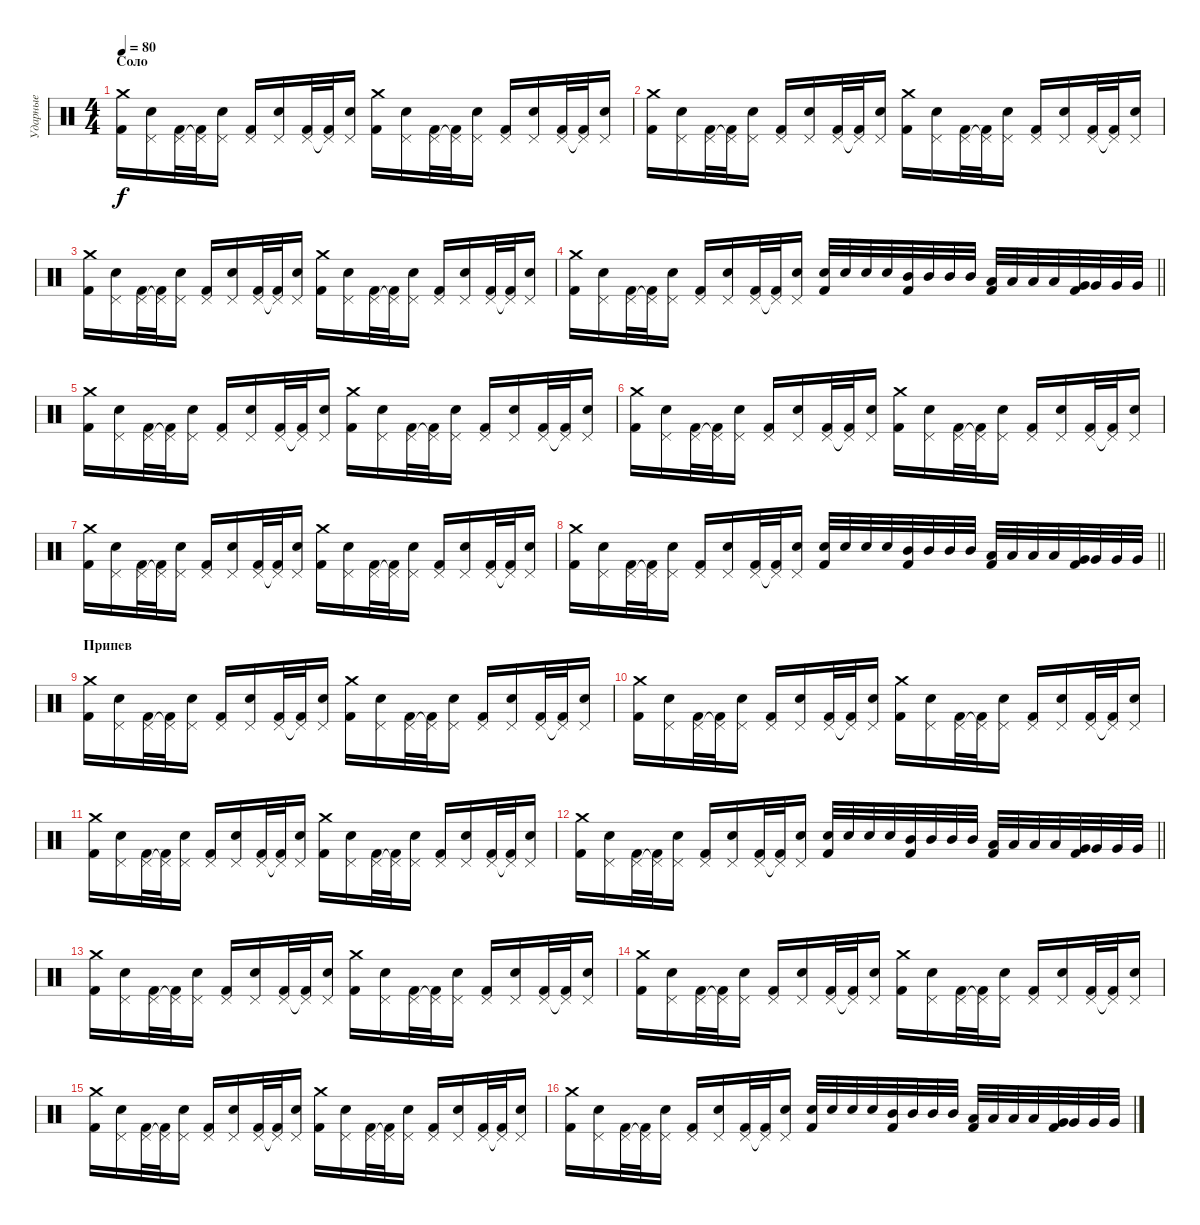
\track ("Ударные" "Ударные") {instrument percussion}
\staff {score}
\articulation defaults
\ts (4 4)
\section ("" "Соло")
\tempo 80
\clef neutral
\ks c
("Crash medium (hit)" "Kick (hit) 2").16{dy f} ("Pedal Hi-Hat (hit)" "Snare (hit) 2").16 ("Pedal Hi-Hat (hit)" "Kick (hit) 2").32 ("Pedal Hi-Hat (hit)"{t} "Kick (hit) 2").32 ("Pedal Hi-Hat (hit)" "Snare (hit) 2").16 ("Pedal Hi-Hat (hit)" "Kick (hit) 2").16 ("Pedal Hi-Hat (hit)" "Snare (hit) 2").16 ("Pedal Hi-Hat (hit)" "Kick (hit) 2").32 ("Pedal Hi-Hat (hit)"{t} "Kick (hit) 2").32 ("Pedal Hi-Hat (hit)" "Snare (hit) 2").16 ("Crash medium (hit)" "Kick (hit) 2").16 ("Pedal Hi-Hat (hit)" "Snare (hit) 2").16 ("Pedal Hi-Hat (hit)" "Kick (hit) 2").32 ("Pedal Hi-Hat (hit)"{t} "Kick (hit) 2").32 ("Pedal Hi-Hat (hit)" "Snare (hit) 2").16 ("Pedal Hi-Hat (hit)" "Kick (hit) 2").16 ("Pedal Hi-Hat (hit)" "Snare (hit) 2").16 ("Pedal Hi-Hat (hit)" "Kick (hit) 2").32 ("Pedal Hi-Hat (hit)"{t} "Kick (hit) 2").32 ("Pedal Hi-Hat (hit)" "Snare (hit) 2").16 |
("Crash medium (hit)" "Kick (hit) 2").16 ("Pedal Hi-Hat (hit)" "Snare (hit) 2").16 ("Pedal Hi-Hat (hit)" "Kick (hit) 2").32 ("Pedal Hi-Hat (hit)"{t} "Kick (hit) 2").32 ("Pedal Hi-Hat (hit)" "Snare (hit) 2").16 ("Pedal Hi-Hat (hit)" "Kick (hit) 2").16 ("Pedal Hi-Hat (hit)" "Snare (hit) 2").16 ("Pedal Hi-Hat (hit)" "Kick (hit) 2").32 ("Pedal Hi-Hat (hit)"{t} "Kick (hit) 2").32 ("Pedal Hi-Hat (hit)" "Snare (hit) 2").16 ("Crash medium (hit)" "Kick (hit) 2").16 ("Pedal Hi-Hat (hit)" "Snare (hit) 2").16 ("Pedal Hi-Hat (hit)" "Kick (hit) 2").32 ("Pedal Hi-Hat (hit)"{t} "Kick (hit) 2").32 ("Pedal Hi-Hat (hit)" "Snare (hit) 2").16 ("Pedal Hi-Hat (hit)" "Kick (hit) 2").16 ("Pedal Hi-Hat (hit)" "Snare (hit) 2").16 ("Pedal Hi-Hat (hit)" "Kick (hit) 2").32 ("Pedal Hi-Hat (hit)"{t} "Kick (hit) 2").32 ("Pedal Hi-Hat (hit)" "Snare (hit) 2").16 |
("Crash medium (hit)" "Kick (hit) 2").16 ("Pedal Hi-Hat (hit)" "Snare (hit) 2").16 ("Pedal Hi-Hat (hit)" "Kick (hit) 2").32 ("Pedal Hi-Hat (hit)"{t} "Kick (hit) 2").32 ("Pedal Hi-Hat (hit)" "Snare (hit) 2").16 ("Pedal Hi-Hat (hit)" "Kick (hit) 2").16 ("Pedal Hi-Hat (hit)" "Snare (hit) 2").16 ("Pedal Hi-Hat (hit)" "Kick (hit) 2").32 ("Pedal Hi-Hat (hit)"{t} "Kick (hit) 2").32 ("Pedal Hi-Hat (hit)" "Snare (hit) 2").16 ("Crash medium (hit)" "Kick (hit) 2").16 ("Pedal Hi-Hat (hit)" "Snare (hit) 2").16 ("Pedal Hi-Hat (hit)" "Kick (hit) 2").32 ("Pedal Hi-Hat (hit)"{t} "Kick (hit) 2").32 ("Pedal Hi-Hat (hit)" "Snare (hit) 2").16 ("Pedal Hi-Hat (hit)" "Kick (hit) 2").16 ("Pedal Hi-Hat (hit)" "Snare (hit) 2").16 ("Pedal Hi-Hat (hit)" "Kick (hit) 2").32 ("Pedal Hi-Hat (hit)"{t} "Kick (hit) 2").32 ("Pedal Hi-Hat (hit)" "Snare (hit) 2").16 |
\barLineRight lightlight
("Crash medium (hit)" "Kick (hit) 2").16 ("Pedal Hi-Hat (hit)" "Snare (hit) 2").16 ("Pedal Hi-Hat (hit)" "Kick (hit) 2").32 ("Pedal Hi-Hat (hit)"{t} "Kick (hit) 2").32 ("Pedal Hi-Hat (hit)" "Snare (hit) 2").16 ("Pedal Hi-Hat (hit)" "Kick (hit) 2").16 ("Pedal Hi-Hat (hit)" "Snare (hit) 2").16 ("Pedal Hi-Hat (hit)" "Kick (hit) 2").32 ("Pedal Hi-Hat (hit)"{t} "Kick (hit) 2").32 ("Pedal Hi-Hat (hit)" "Snare (hit) 2").16 ("Snare (hit) 2" "Kick (hit) 2").32 "Snare (hit) 2".32 "Snare (hit) 2".32 "Snare (hit) 2".32 ("Mid Tom (hit)" "Kick (hit) 2").32 "Mid Tom (hit)".32 "Mid Tom (hit)".32 "Mid Tom (hit)".32 ("Low Tom (hit)" "Kick (hit) 2").32 "Low Tom (hit)".32 "Low Tom (hit)".32 "Low Tom (hit)".32 ("Very Low Tom (hit)" "Kick (hit) 2").32 "Very Low Tom (hit)".32 "Very Low Tom (hit)".32 "Very Low Tom (hit)".32 |
("Crash medium (hit)" "Kick (hit) 2").16 ("Pedal Hi-Hat (hit)" "Snare (hit) 2").16 ("Pedal Hi-Hat (hit)" "Kick (hit) 2").32 ("Pedal Hi-Hat (hit)"{t} "Kick (hit) 2").32 ("Pedal Hi-Hat (hit)" "Snare (hit) 2").16 ("Pedal Hi-Hat (hit)" "Kick (hit) 2").16 ("Pedal Hi-Hat (hit)" "Snare (hit) 2").16 ("Pedal Hi-Hat (hit)" "Kick (hit) 2").32 ("Pedal Hi-Hat (hit)"{t} "Kick (hit) 2").32 ("Pedal Hi-Hat (hit)" "Snare (hit) 2").16 ("Crash medium (hit)" "Kick (hit) 2").16 ("Pedal Hi-Hat (hit)" "Snare (hit) 2").16 ("Pedal Hi-Hat (hit)" "Kick (hit) 2").32 ("Pedal Hi-Hat (hit)"{t} "Kick (hit) 2").32 ("Pedal Hi-Hat (hit)" "Snare (hit) 2").16 ("Pedal Hi-Hat (hit)" "Kick (hit) 2").16 ("Pedal Hi-Hat (hit)" "Snare (hit) 2").16 ("Pedal Hi-Hat (hit)" "Kick (hit) 2").32 ("Pedal Hi-Hat (hit)"{t} "Kick (hit) 2").32 ("Pedal Hi-Hat (hit)" "Snare (hit) 2").16 |
("Crash medium (hit)" "Kick (hit) 2").16 ("Pedal Hi-Hat (hit)" "Snare (hit) 2").16 ("Pedal Hi-Hat (hit)" "Kick (hit) 2").32 ("Pedal Hi-Hat (hit)"{t} "Kick (hit) 2").32 ("Pedal Hi-Hat (hit)" "Snare (hit) 2").16 ("Pedal Hi-Hat (hit)" "Kick (hit) 2").16 ("Pedal Hi-Hat (hit)" "Snare (hit) 2").16 ("Pedal Hi-Hat (hit)" "Kick (hit) 2").32 ("Pedal Hi-Hat (hit)"{t} "Kick (hit) 2").32 ("Pedal Hi-Hat (hit)" "Snare (hit) 2").16 ("Crash medium (hit)" "Kick (hit) 2").16 ("Pedal Hi-Hat (hit)" "Snare (hit) 2").16 ("Pedal Hi-Hat (hit)" "Kick (hit) 2").32 ("Pedal Hi-Hat (hit)"{t} "Kick (hit) 2").32 ("Pedal Hi-Hat (hit)" "Snare (hit) 2").16 ("Pedal Hi-Hat (hit)" "Kick (hit) 2").16 ("Pedal Hi-Hat (hit)" "Snare (hit) 2").16 ("Pedal Hi-Hat (hit)" "Kick (hit) 2").32 ("Pedal Hi-Hat (hit)"{t} "Kick (hit) 2").32 ("Pedal Hi-Hat (hit)" "Snare (hit) 2").16 |
("Crash medium (hit)" "Kick (hit) 2").16 ("Pedal Hi-Hat (hit)" "Snare (hit) 2").16 ("Pedal Hi-Hat (hit)" "Kick (hit) 2").32 ("Pedal Hi-Hat (hit)"{t} "Kick (hit) 2").32 ("Pedal Hi-Hat (hit)" "Snare (hit) 2").16 ("Pedal Hi-Hat (hit)" "Kick (hit) 2").16 ("Pedal Hi-Hat (hit)" "Snare (hit) 2").16 ("Pedal Hi-Hat (hit)" "Kick (hit) 2").32 ("Pedal Hi-Hat (hit)"{t} "Kick (hit) 2").32 ("Pedal Hi-Hat (hit)" "Snare (hit) 2").16 ("Crash medium (hit)" "Kick (hit) 2").16 ("Pedal Hi-Hat (hit)" "Snare (hit) 2").16 ("Pedal Hi-Hat (hit)" "Kick (hit) 2").32 ("Pedal Hi-Hat (hit)"{t} "Kick (hit) 2").32 ("Pedal Hi-Hat (hit)" "Snare (hit) 2").16 ("Pedal Hi-Hat (hit)" "Kick (hit) 2").16 ("Pedal Hi-Hat (hit)" "Snare (hit) 2").16 ("Pedal Hi-Hat (hit)" "Kick (hit) 2").32 ("Pedal Hi-Hat (hit)"{t} "Kick (hit) 2").32 ("Pedal Hi-Hat (hit)" "Snare (hit) 2").16 |
\barLineRight lightlight
("Crash medium (hit)" "Kick (hit) 2").16 ("Pedal Hi-Hat (hit)" "Snare (hit) 2").16 ("Pedal Hi-Hat (hit)" "Kick (hit) 2").32 ("Pedal Hi-Hat (hit)"{t} "Kick (hit) 2").32 ("Pedal Hi-Hat (hit)" "Snare (hit) 2").16 ("Pedal Hi-Hat (hit)" "Kick (hit) 2").16 ("Pedal Hi-Hat (hit)" "Snare (hit) 2").16 ("Pedal Hi-Hat (hit)" "Kick (hit) 2").32 ("Pedal Hi-Hat (hit)"{t} "Kick (hit) 2").32 ("Pedal Hi-Hat (hit)" "Snare (hit) 2").16 ("Snare (hit) 2" "Kick (hit) 2").32 "Snare (hit) 2".32 "Snare (hit) 2".32 "Snare (hit) 2".32 ("Mid Tom (hit)" "Kick (hit) 2").32 "Mid Tom (hit)".32 "Mid Tom (hit)".32 "Mid Tom (hit)".32 ("Low Tom (hit)" "Kick (hit) 2").32 "Low Tom (hit)".32 "Low Tom (hit)".32 "Low Tom (hit)".32 ("Very Low Tom (hit)" "Kick (hit) 2").32 "Very Low Tom (hit)".32 "Very Low Tom (hit)".32 "Very Low Tom (hit)".32 |
\section ("" "Припев")
("Crash medium (hit)" "Kick (hit) 2").16 ("Pedal Hi-Hat (hit)" "Snare (hit) 2").16 ("Pedal Hi-Hat (hit)" "Kick (hit) 2").32 ("Pedal Hi-Hat (hit)"{t} "Kick (hit) 2").32 ("Pedal Hi-Hat (hit)" "Snare (hit) 2").16 ("Pedal Hi-Hat (hit)" "Kick (hit) 2").16 ("Pedal Hi-Hat (hit)" "Snare (hit) 2").16 ("Pedal Hi-Hat (hit)" "Kick (hit) 2").32 ("Pedal Hi-Hat (hit)"{t} "Kick (hit) 2").32 ("Pedal Hi-Hat (hit)" "Snare (hit) 2").16 ("Crash medium (hit)" "Kick (hit) 2").16 ("Pedal Hi-Hat (hit)" "Snare (hit) 2").16 ("Pedal Hi-Hat (hit)" "Kick (hit) 2").32 ("Pedal Hi-Hat (hit)"{t} "Kick (hit) 2").32 ("Pedal Hi-Hat (hit)" "Snare (hit) 2").16 ("Pedal Hi-Hat (hit)" "Kick (hit) 2").16 ("Pedal Hi-Hat (hit)" "Snare (hit) 2").16 ("Pedal Hi-Hat (hit)" "Kick (hit) 2").32 ("Pedal Hi-Hat (hit)"{t} "Kick (hit) 2").32 ("Pedal Hi-Hat (hit)" "Snare (hit) 2").16 |
("Crash medium (hit)" "Kick (hit) 2").16 ("Pedal Hi-Hat (hit)" "Snare (hit) 2").16 ("Pedal Hi-Hat (hit)" "Kick (hit) 2").32 ("Pedal Hi-Hat (hit)"{t} "Kick (hit) 2").32 ("Pedal Hi-Hat (hit)" "Snare (hit) 2").16 ("Pedal Hi-Hat (hit)" "Kick (hit) 2").16 ("Pedal Hi-Hat (hit)" "Snare (hit) 2").16 ("Pedal Hi-Hat (hit)" "Kick (hit) 2").32 ("Pedal Hi-Hat (hit)"{t} "Kick (hit) 2").32 ("Pedal Hi-Hat (hit)" "Snare (hit) 2").16 ("Crash medium (hit)" "Kick (hit) 2").16 ("Pedal Hi-Hat (hit)" "Snare (hit) 2").16 ("Pedal Hi-Hat (hit)" "Kick (hit) 2").32 ("Pedal Hi-Hat (hit)"{t} "Kick (hit) 2").32 ("Pedal Hi-Hat (hit)" "Snare (hit) 2").16 ("Pedal Hi-Hat (hit)" "Kick (hit) 2").16 ("Pedal Hi-Hat (hit)" "Snare (hit) 2").16 ("Pedal Hi-Hat (hit)" "Kick (hit) 2").32 ("Pedal Hi-Hat (hit)"{t} "Kick (hit) 2").32 ("Pedal Hi-Hat (hit)" "Snare (hit) 2").16 |
("Crash medium (hit)" "Kick (hit) 2").16 ("Pedal Hi-Hat (hit)" "Snare (hit) 2").16 ("Pedal Hi-Hat (hit)" "Kick (hit) 2").32 ("Pedal Hi-Hat (hit)"{t} "Kick (hit) 2").32 ("Pedal Hi-Hat (hit)" "Snare (hit) 2").16 ("Pedal Hi-Hat (hit)" "Kick (hit) 2").16 ("Pedal Hi-Hat (hit)" "Snare (hit) 2").16 ("Pedal Hi-Hat (hit)" "Kick (hit) 2").32 ("Pedal Hi-Hat (hit)"{t} "Kick (hit) 2").32 ("Pedal Hi-Hat (hit)" "Snare (hit) 2").16 ("Crash medium (hit)" "Kick (hit) 2").16 ("Pedal Hi-Hat (hit)" "Snare (hit) 2").16 ("Pedal Hi-Hat (hit)" "Kick (hit) 2").32 ("Pedal Hi-Hat (hit)"{t} "Kick (hit) 2").32 ("Pedal Hi-Hat (hit)" "Snare (hit) 2").16 ("Pedal Hi-Hat (hit)" "Kick (hit) 2").16 ("Pedal Hi-Hat (hit)" "Snare (hit) 2").16 ("Pedal Hi-Hat (hit)" "Kick (hit) 2").32 ("Pedal Hi-Hat (hit)"{t} "Kick (hit) 2").32 ("Pedal Hi-Hat (hit)" "Snare (hit) 2").16 |
\barLineRight lightlight
("Crash medium (hit)" "Kick (hit) 2").16 ("Pedal Hi-Hat (hit)" "Snare (hit) 2").16 ("Pedal Hi-Hat (hit)" "Kick (hit) 2").32 ("Pedal Hi-Hat (hit)"{t} "Kick (hit) 2").32 ("Pedal Hi-Hat (hit)" "Snare (hit) 2").16 ("Pedal Hi-Hat (hit)" "Kick (hit) 2").16 ("Pedal Hi-Hat (hit)" "Snare (hit) 2").16 ("Pedal Hi-Hat (hit)" "Kick (hit) 2").32 ("Pedal Hi-Hat (hit)"{t} "Kick (hit) 2").32 ("Pedal Hi-Hat (hit)" "Snare (hit) 2").16 ("Snare (hit) 2" "Kick (hit) 2").32 "Snare (hit) 2".32 "Snare (hit) 2".32 "Snare (hit) 2".32 ("Mid Tom (hit)" "Kick (hit) 2").32 "Mid Tom (hit)".32 "Mid Tom (hit)".32 "Mid Tom (hit)".32 ("Low Tom (hit)" "Kick (hit) 2").32 "Low Tom (hit)".32 "Low Tom (hit)".32 "Low Tom (hit)".32 ("Very Low Tom (hit)" "Kick (hit) 2").32 "Very Low Tom (hit)".32 "Very Low Tom (hit)".32 "Very Low Tom (hit)".32 |
("Crash medium (hit)" "Kick (hit) 2").16 ("Pedal Hi-Hat (hit)" "Snare (hit) 2").16 ("Pedal Hi-Hat (hit)" "Kick (hit) 2").32 ("Pedal Hi-Hat (hit)"{t} "Kick (hit) 2").32 ("Pedal Hi-Hat (hit)" "Snare (hit) 2").16 ("Pedal Hi-Hat (hit)" "Kick (hit) 2").16 ("Pedal Hi-Hat (hit)" "Snare (hit) 2").16 ("Pedal Hi-Hat (hit)" "Kick (hit) 2").32 ("Pedal Hi-Hat (hit)"{t} "Kick (hit) 2").32 ("Pedal Hi-Hat (hit)" "Snare (hit) 2").16 ("Crash medium (hit)" "Kick (hit) 2").16 ("Pedal Hi-Hat (hit)" "Snare (hit) 2").16 ("Pedal Hi-Hat (hit)" "Kick (hit) 2").32 ("Pedal Hi-Hat (hit)"{t} "Kick (hit) 2").32 ("Pedal Hi-Hat (hit)" "Snare (hit) 2").16 ("Pedal Hi-Hat (hit)" "Kick (hit) 2").16 ("Pedal Hi-Hat (hit)" "Snare (hit) 2").16 ("Pedal Hi-Hat (hit)" "Kick (hit) 2").32 ("Pedal Hi-Hat (hit)"{t} "Kick (hit) 2").32 ("Pedal Hi-Hat (hit)" "Snare (hit) 2").16 |
("Crash medium (hit)" "Kick (hit) 2").16 ("Pedal Hi-Hat (hit)" "Snare (hit) 2").16 ("Pedal Hi-Hat (hit)" "Kick (hit) 2").32 ("Pedal Hi-Hat (hit)"{t} "Kick (hit) 2").32 ("Pedal Hi-Hat (hit)" "Snare (hit) 2").16 ("Pedal Hi-Hat (hit)" "Kick (hit) 2").16 ("Pedal Hi-Hat (hit)" "Snare (hit) 2").16 ("Pedal Hi-Hat (hit)" "Kick (hit) 2").32 ("Pedal Hi-Hat (hit)"{t} "Kick (hit) 2").32 ("Pedal Hi-Hat (hit)" "Snare (hit) 2").16 ("Crash medium (hit)" "Kick (hit) 2").16 ("Pedal Hi-Hat (hit)" "Snare (hit) 2").16 ("Pedal Hi-Hat (hit)" "Kick (hit) 2").32 ("Pedal Hi-Hat (hit)"{t} "Kick (hit) 2").32 ("Pedal Hi-Hat (hit)" "Snare (hit) 2").16 ("Pedal Hi-Hat (hit)" "Kick (hit) 2").16 ("Pedal Hi-Hat (hit)" "Snare (hit) 2").16 ("Pedal Hi-Hat (hit)" "Kick (hit) 2").32 ("Pedal Hi-Hat (hit)"{t} "Kick (hit) 2").32 ("Pedal Hi-Hat (hit)" "Snare (hit) 2").16 |
("Crash medium (hit)" "Kick (hit) 2").16 ("Pedal Hi-Hat (hit)" "Snare (hit) 2").16 ("Pedal Hi-Hat (hit)" "Kick (hit) 2").32 ("Pedal Hi-Hat (hit)"{t} "Kick (hit) 2").32 ("Pedal Hi-Hat (hit)" "Snare (hit) 2").16 ("Pedal Hi-Hat (hit)" "Kick (hit) 2").16 ("Pedal Hi-Hat (hit)" "Snare (hit) 2").16 ("Pedal Hi-Hat (hit)" "Kick (hit) 2").32 ("Pedal Hi-Hat (hit)"{t} "Kick (hit) 2").32 ("Pedal Hi-Hat (hit)" "Snare (hit) 2").16 ("Crash medium (hit)" "Kick (hit) 2").16 ("Pedal Hi-Hat (hit)" "Snare (hit) 2").16 ("Pedal Hi-Hat (hit)" "Kick (hit) 2").32 ("Pedal Hi-Hat (hit)"{t} "Kick (hit) 2").32 ("Pedal Hi-Hat (hit)" "Snare (hit) 2").16 ("Pedal Hi-Hat (hit)" "Kick (hit) 2").16 ("Pedal Hi-Hat (hit)" "Snare (hit) 2").16 ("Pedal Hi-Hat (hit)" "Kick (hit) 2").32 ("Pedal Hi-Hat (hit)"{t} "Kick (hit) 2").32 ("Pedal Hi-Hat (hit)" "Snare (hit) 2").16 |
("Crash medium (hit)" "Kick (hit) 2").16 ("Pedal Hi-Hat (hit)" "Snare (hit) 2").16 ("Pedal Hi-Hat (hit)" "Kick (hit) 2").32 ("Pedal Hi-Hat (hit)"{t} "Kick (hit) 2").32 ("Pedal Hi-Hat (hit)" "Snare (hit) 2").16 ("Pedal Hi-Hat (hit)" "Kick (hit) 2").16 ("Pedal Hi-Hat (hit)" "Snare (hit) 2").16 ("Pedal Hi-Hat (hit)" "Kick (hit) 2").32 ("Pedal Hi-Hat (hit)"{t} "Kick (hit) 2").32 ("Pedal Hi-Hat (hit)" "Snare (hit) 2").16 ("Snare (hit) 2" "Kick (hit) 2").32 "Snare (hit) 2".32 "Snare (hit) 2".32 "Snare (hit) 2".32 ("Mid Tom (hit)" "Kick (hit) 2").32 "Mid Tom (hit)".32 "Mid Tom (hit)".32 "Mid Tom (hit)".32 ("Low Tom (hit)" "Kick (hit) 2").32 "Low Tom (hit)".32 "Low Tom (hit)".32 "Low Tom (hit)".32 ("Very Low Tom (hit)" "Kick (hit) 2").32 "Very Low Tom (hit)".32 "Very Low Tom (hit)".32 "Very Low Tom (hit)".32
